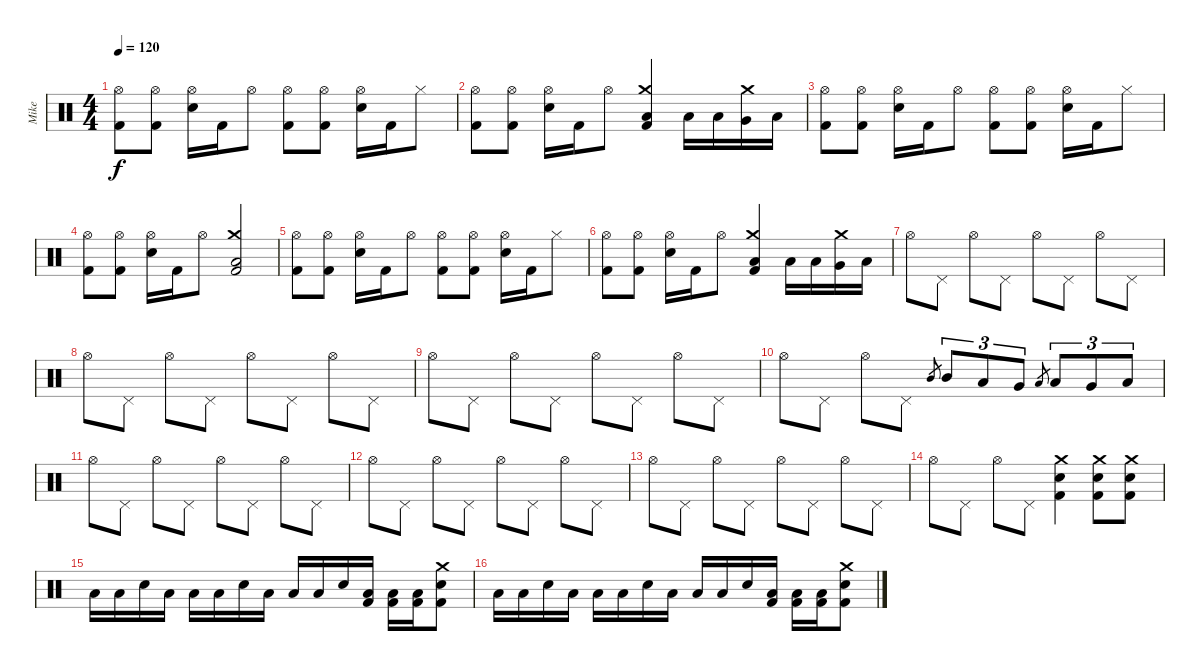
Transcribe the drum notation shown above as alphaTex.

\track ("Mike" "Mike") {instrument percussion}
\staff {score}
\articulation defaults
\ts (4 4)
\tempo 120
\clef neutral
\ks c
("Hi-Hat (open)" "Kick (hit) 2").8{dy f} ("Hi-Hat (open)" "Kick (hit) 2").8 ("Hi-Hat (open)" "Electric Snare (hit)").16 "Kick (hit) 2".16 "Hi-Hat (open)".8 ("Hi-Hat (open)" "Kick (hit) 2").8 ("Hi-Hat (open)" "Kick (hit) 2").8 ("Hi-Hat (open)" "Electric Snare (hit)").16 "Kick (hit) 2".16 "Hi-Hat (closed)".8 |
("Hi-Hat (open)" "Kick (hit) 2").8 ("Hi-Hat (open)" "Kick (hit) 2").8 ("Hi-Hat (open)" "Electric Snare (hit)").16 "Kick (hit) 2".16 "Hi-Hat (open)".8 ("Crash medium (hit)" "Low Floor Tom (hit)" "Kick (hit) 2").4 "Low Tom (hit)".16 "Low Floor Tom (hit)".16 ("Crash medium (hit)" "Very Low Tom (hit)").16 "Low Floor Tom (hit)".16 |
("Hi-Hat (open)" "Kick (hit) 2").8 ("Hi-Hat (open)" "Kick (hit) 2").8 ("Hi-Hat (open)" "Electric Snare (hit)").16 "Kick (hit) 2".16 "Hi-Hat (open)".8 ("Hi-Hat (open)" "Kick (hit) 2").8 ("Hi-Hat (open)" "Kick (hit) 2").8 ("Hi-Hat (open)" "Electric Snare (hit)").16 "Kick (hit) 2".16 "Hi-Hat (closed)".8 |
("Hi-Hat (open)" "Kick (hit) 2").8 ("Hi-Hat (open)" "Kick (hit) 2").8 ("Hi-Hat (open)" "Electric Snare (hit)").16 "Kick (hit) 2".16 "Hi-Hat (open)".8 ("Crash medium (hit)" "Low Floor Tom (hit)" "Kick (hit) 2").2 |
("Hi-Hat (open)" "Kick (hit) 2").8 ("Hi-Hat (open)" "Kick (hit) 2").8 ("Hi-Hat (open)" "Electric Snare (hit)").16 "Kick (hit) 2".16 "Hi-Hat (open)".8 ("Hi-Hat (open)" "Kick (hit) 2").8 ("Hi-Hat (open)" "Kick (hit) 2").8 ("Hi-Hat (open)" "Electric Snare (hit)").16 "Kick (hit) 2".16 "Hi-Hat (closed)".8 |
("Hi-Hat (open)" "Kick (hit) 2").8 ("Hi-Hat (open)" "Kick (hit) 2").8 ("Hi-Hat (open)" "Electric Snare (hit)").16 "Kick (hit) 2".16 "Hi-Hat (open)".8 ("Crash medium (hit)" "Low Floor Tom (hit)" "Kick (hit) 2").4 "Low Tom (hit)".16 "Low Floor Tom (hit)".16 ("Crash medium (hit)" "Very Low Tom (hit)").16 "Low Floor Tom (hit)".16 |
"Hi-Hat (open)".8 "Pedal Hi-Hat (hit)".8 "Hi-Hat (open)".8 "Pedal Hi-Hat (hit)".8 "Hi-Hat (open)".8 "Pedal Hi-Hat (hit)".8 "Hi-Hat (open)".8 "Pedal Hi-Hat (hit)".8 |
"Hi-Hat (open)".8 "Pedal Hi-Hat (hit)".8 "Hi-Hat (open)".8 "Pedal Hi-Hat (hit)".8 "Hi-Hat (open)".8 "Pedal Hi-Hat (hit)".8 "Hi-Hat (open)".8 "Pedal Hi-Hat (hit)".8 |
"Hi-Hat (open)".8 "Pedal Hi-Hat (hit)".8 "Hi-Hat (open)".8 "Pedal Hi-Hat (hit)".8 "Hi-Hat (open)".8 "Pedal Hi-Hat (hit)".8 "Hi-Hat (open)".8 "Pedal Hi-Hat (hit)".8 |
"Hi-Hat (open)".8 "Pedal Hi-Hat (hit)".8 "Hi-Hat (open)".8 "Pedal Hi-Hat (hit)".8 "Mid Tom (hit)".8{gr} "Mid Tom (hit)".8{tu (3 2)} "Low Tom (hit)".8{tu (3 2)} "Very Low Tom (hit)".8{tu (3 2)} "Low Tom (hit)".8{gr} "Low Tom (hit)".8{tu (3 2)} "Very Low Tom (hit)".8{tu (3 2)} "Low Floor Tom (hit)".8{tu (3 2)} |
"Hi-Hat (open)".8 "Pedal Hi-Hat (hit)".8 "Hi-Hat (open)".8 "Pedal Hi-Hat (hit)".8 "Hi-Hat (open)".8 "Pedal Hi-Hat (hit)".8 "Hi-Hat (open)".8 "Pedal Hi-Hat (hit)".8 |
"Hi-Hat (open)".8 "Pedal Hi-Hat (hit)".8 "Hi-Hat (open)".8 "Pedal Hi-Hat (hit)".8 "Hi-Hat (open)".8 "Pedal Hi-Hat (hit)".8 "Hi-Hat (open)".8 "Pedal Hi-Hat (hit)".8 |
"Hi-Hat (open)".8 "Pedal Hi-Hat (hit)".8 "Hi-Hat (open)".8 "Pedal Hi-Hat (hit)".8 "Hi-Hat (open)".8 "Pedal Hi-Hat (hit)".8 "Hi-Hat (open)".8 "Pedal Hi-Hat (hit)".8 |
"Hi-Hat (open)".8 "Pedal Hi-Hat (hit)".8 "Hi-Hat (open)".8 "Pedal Hi-Hat (hit)".8 ("Crash medium (hit)" "Electric Snare (hit)" "Kick (hit) 2").4 ("Crash medium (hit)" "Electric Snare (hit)" "Kick (hit) 2").8 ("Crash medium (hit)" "Electric Snare (hit)" "Kick (hit) 2").8 |
"Low Floor Tom (hit)".16 "Low Floor Tom (hit)".16 "Electric Snare (hit)".16 "Low Floor Tom (hit)".16 "Low Floor Tom (hit)".16 "Low Floor Tom (hit)".16 "Electric Snare (hit)".16 "Low Floor Tom (hit)".16 "Low Floor Tom (hit)".16 "Low Floor Tom (hit)".16 "Electric Snare (hit)".16 ("Low Floor Tom (hit)" "Kick (hit) 2").16 ("Low Floor Tom (hit)" "Kick (hit) 2").16 ("Low Floor Tom (hit)" "Kick (hit) 2").16 ("Crash medium (hit)" "Electric Snare (hit)" "Kick (hit) 2").8 |
"Low Floor Tom (hit)".16 "Low Floor Tom (hit)".16 "Electric Snare (hit)".16 "Low Floor Tom (hit)".16 "Low Floor Tom (hit)".16 "Low Floor Tom (hit)".16 "Electric Snare (hit)".16 "Low Floor Tom (hit)".16 "Low Floor Tom (hit)".16 "Low Floor Tom (hit)".16 "Electric Snare (hit)".16 ("Low Floor Tom (hit)" "Kick (hit) 2").16 ("Low Floor Tom (hit)" "Kick (hit) 2").16 ("Low Floor Tom (hit)" "Kick (hit) 2").16 ("Crash medium (hit)" "Electric Snare (hit)" "Kick (hit) 2").8
